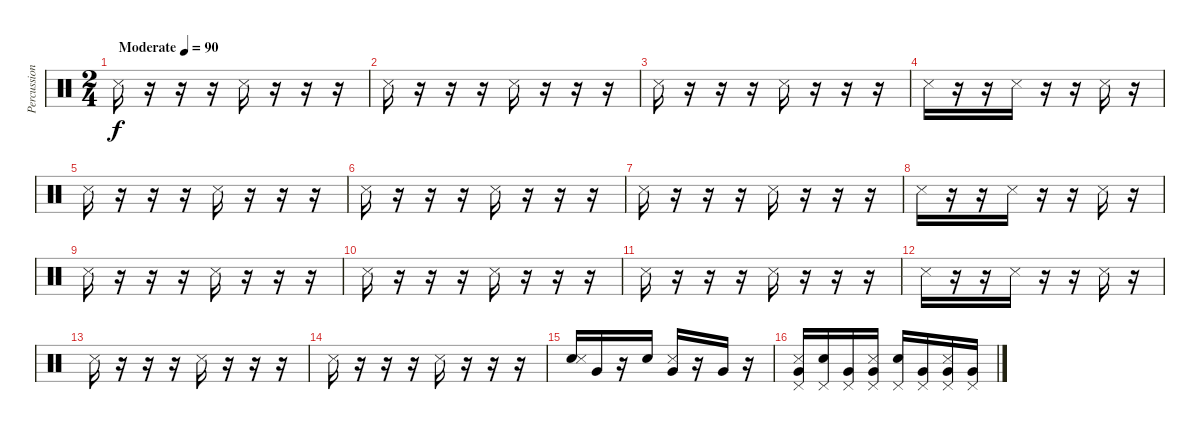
\track ("Percussion" "Percussion") {instrument percussion}
\staff {score}
\articulation defaults
\ts (2 4)
\tempo (90 "Moderate")
\clef neutral
\ks c "Snare (side stick) 3".16{dy f}
r.16 r.16 r.16 "Snare (side stick) 3".16 r.16 r.16 r.16 |
"Snare (side stick) 3".16 r.16 r.16 r.16 "Snare (side stick) 3".16 r.16 r.16 r.16 |
"Snare (side stick) 3".16 r.16 r.16 r.16 "Snare (side stick) 3".16 r.16 r.16 r.16 |
"Snare (side stick) 3".16 r.16 r.16 "Snare (side stick) 3".16 r.16 r.16 "Snare (side stick) 3".16 r.16 |
"Snare (side stick) 3".16 r.16 r.16 r.16 "Snare (side stick) 3".16 r.16 r.16 r.16 |
"Snare (side stick) 3".16 r.16 r.16 r.16 "Snare (side stick) 3".16 r.16 r.16 r.16 |
"Snare (side stick) 3".16 r.16 r.16 r.16 "Snare (side stick) 3".16 r.16 r.16 r.16 |
"Snare (side stick) 3".16 r.16 r.16 "Snare (side stick) 3".16 r.16 r.16 "Snare (side stick) 3".16 r.16 |
"Snare (side stick) 3".16 r.16 r.16 r.16 "Snare (side stick) 3".16 r.16 r.16 r.16 |
"Snare (side stick) 3".16 r.16 r.16 r.16 "Snare (side stick) 3".16 r.16 r.16 r.16 |
"Snare (side stick) 3".16 r.16 r.16 r.16 "Snare (side stick) 3".16 r.16 r.16 r.16 |
"Snare (side stick) 3".16 r.16 r.16 "Snare (side stick) 3".16 r.16 r.16 "Snare (side stick) 3".16 r.16 |
"Snare (side stick) 3".16 r.16 r.16 r.16 "Snare (side stick) 3".16 r.16 r.16 r.16 |
"Snare (side stick) 3".16 r.16 r.16 r.16 "Snare (side stick) 3".16 r.16 r.16 r.16 |
("Electric Snare (hit)" "Snare (side stick) 3").16 "Very Low Tom (hit)".16 r.16 "Electric Snare (hit)".16 ("Very Low Tom (hit)" "Snare (side stick) 3").16 r.16 "Very Low Tom (hit)".16 r.16 |
("Very Low Tom (hit)" "Snare (side stick) 3" "Pedal Hi-Hat (hit)").16 ("Electric Snare (hit)" "Pedal Hi-Hat (hit)").16 ("Very Low Tom (hit)" "Pedal Hi-Hat (hit)").16 ("Very Low Tom (hit)" "Snare (side stick) 3" "Pedal Hi-Hat (hit)").16 ("Electric Snare (hit)" "Pedal Hi-Hat (hit)").16 ("Very Low Tom (hit)" "Pedal Hi-Hat (hit)").16 ("Very Low Tom (hit)" "Snare (side stick) 3" "Pedal Hi-Hat (hit)").16 ("Very Low Tom (hit)" "Pedal Hi-Hat (hit)").16
